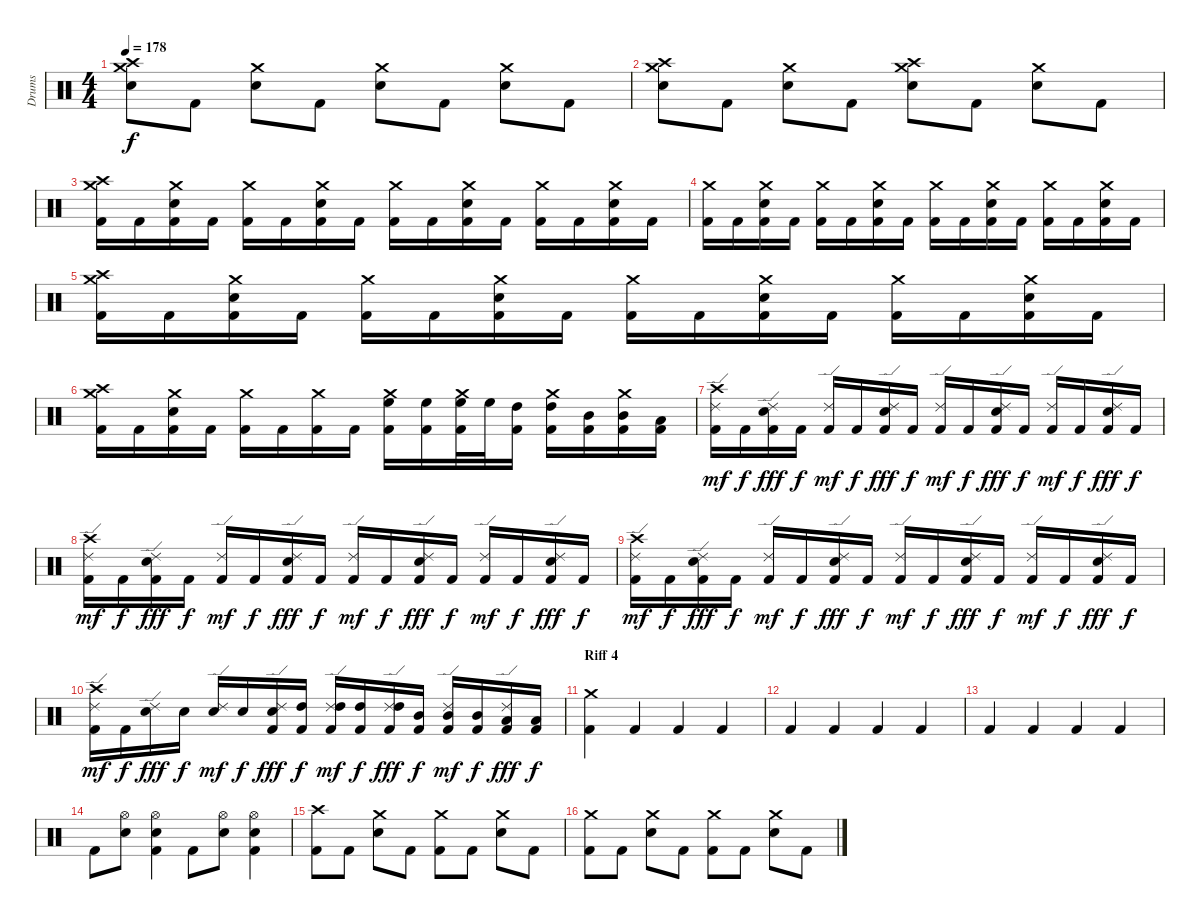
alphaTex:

\track ("Drums" "Drums") {instrument percussion}
\staff {score}
\articulation defaults
\ts (4 4)
\tempo 178
\clef neutral
\ks c
("Crash high (hit)" "Crash medium (hit)" "Electric Snare (hit)").8{dy f} "Kick (hit) 2".8 ("Crash medium (hit)" "Electric Snare (hit)").8 "Kick (hit) 2".8 ("Crash medium (hit)" "Electric Snare (hit)").8 "Kick (hit) 2".8 ("Crash medium (hit)" "Electric Snare (hit)").8 "Kick (hit) 2".8 |
("Crash high (hit)" "Crash medium (hit)" "Electric Snare (hit)").8 "Kick (hit) 2".8 ("Crash medium (hit)" "Electric Snare (hit)").8 "Kick (hit) 2".8 ("Crash high (hit)" "Crash medium (hit)" "Electric Snare (hit)").8 "Kick (hit) 2".8 ("Crash medium (hit)" "Electric Snare (hit)").8 "Kick (hit) 2".8 |
("Crash high (hit)" "Crash medium (hit)" "Kick (hit) 2").16 "Kick (hit) 2".16 ("Crash medium (hit)" "Electric Snare (hit)" "Kick (hit) 2").16 "Kick (hit) 2".16 ("Crash medium (hit)" "Kick (hit) 2").16 "Kick (hit) 2".16 ("Crash medium (hit)" "Electric Snare (hit)" "Kick (hit) 2").16 "Kick (hit) 2".16 ("Crash medium (hit)" "Kick (hit) 2").16 "Kick (hit) 2".16 ("Crash medium (hit)" "Electric Snare (hit)" "Kick (hit) 2").16 "Kick (hit) 2".16 ("Crash medium (hit)" "Kick (hit) 2").16 "Kick (hit) 2".16 ("Crash medium (hit)" "Electric Snare (hit)" "Kick (hit) 2").16 "Kick (hit) 2".16 |
("Crash medium (hit)" "Kick (hit) 2").16 "Kick (hit) 2".16 ("Crash medium (hit)" "Electric Snare (hit)" "Kick (hit) 2").16 "Kick (hit) 2".16 ("Crash medium (hit)" "Kick (hit) 2").16 "Kick (hit) 2".16 ("Crash medium (hit)" "Electric Snare (hit)" "Kick (hit) 2").16 "Kick (hit) 2".16 ("Crash medium (hit)" "Kick (hit) 2").16 "Kick (hit) 2".16 ("Crash medium (hit)" "Electric Snare (hit)" "Kick (hit) 2").16 "Kick (hit) 2".16 ("Crash medium (hit)" "Kick (hit) 2").16 "Kick (hit) 2".16 ("Crash medium (hit)" "Electric Snare (hit)" "Kick (hit) 2").16 "Kick (hit) 2".16 |
("Crash high (hit)" "Crash medium (hit)" "Kick (hit) 2").16 "Kick (hit) 2".16 ("Crash medium (hit)" "Electric Snare (hit)" "Kick (hit) 2").16 "Kick (hit) 2".16 ("Crash medium (hit)" "Kick (hit) 2").16 "Kick (hit) 2".16 ("Crash medium (hit)" "Electric Snare (hit)" "Kick (hit) 2").16 "Kick (hit) 2".16 ("Crash medium (hit)" "Kick (hit) 2").16 "Kick (hit) 2".16 ("Crash medium (hit)" "Electric Snare (hit)" "Kick (hit) 2").16 "Kick (hit) 2".16 ("Crash medium (hit)" "Kick (hit) 2").16 "Kick (hit) 2".16 ("Crash medium (hit)" "Electric Snare (hit)" "Kick (hit) 2").16 "Kick (hit) 2".16 |
("Crash high (hit)" "Crash medium (hit)" "Kick (hit) 2").16 "Kick (hit) 2".16 ("Crash medium (hit)" "Electric Snare (hit)" "Kick (hit) 2").16 "Kick (hit) 2".16 ("Crash medium (hit)" "Kick (hit) 2").16 "Kick (hit) 2".16 ("Crash medium (hit)" "Kick (hit) 2").16 "Kick (hit) 2".16 ("Crash medium (hit)" "High Floor Tom (hit)" "Kick (hit) 2").16 ("High Floor Tom (hit)" "Kick (hit) 2").16 ("Crash medium (hit)" "High Floor Tom (hit)" "Kick (hit) 2").32 "High Floor Tom (hit)".32 ("High Tom (hit)" "Kick (hit) 2").16 ("Crash medium (hit)" "High Tom (hit)" "Kick (hit) 2").16 ("Mid Tom (hit)" "Kick (hit) 2").16 ("Crash medium (hit)" "Mid Tom (hit)" "Kick (hit) 2").16 ("Low Tom (hit)" "Kick (hit) 2").16 |
("Crash high (hit)" "Ride (edge) 2" "Kick (hit) 2").16{dy mf} "Kick (hit) 2".16{dy f} ("Ride (edge) 2" "Electric Snare (hit)" "Kick (hit) 2").16{dy fff} "Kick (hit) 2".16{dy f} ("Ride (edge) 2" "Kick (hit) 2").16{dy mf} "Kick (hit) 2".16{dy f} ("Ride (edge) 2" "Electric Snare (hit)" "Kick (hit) 2").16{dy fff} "Kick (hit) 2".16{dy f} ("Ride (edge) 2" "Kick (hit) 2").16{dy mf} "Kick (hit) 2".16{dy f} ("Ride (edge) 2" "Electric Snare (hit)" "Kick (hit) 2").16{dy fff} "Kick (hit) 2".16{dy f} ("Ride (edge) 2" "Kick (hit) 2").16{dy mf} "Kick (hit) 2".16{dy f} ("Ride (edge) 2" "Electric Snare (hit)" "Kick (hit) 2").16{dy fff} "Kick (hit) 2".16{dy f} |
("Crash high (hit)" "Ride (edge) 2" "Kick (hit) 2").16{dy mf} "Kick (hit) 2".16{dy f} ("Ride (edge) 2" "Electric Snare (hit)" "Kick (hit) 2").16{dy fff} "Kick (hit) 2".16{dy f} ("Ride (edge) 2" "Kick (hit) 2").16{dy mf} "Kick (hit) 2".16{dy f} ("Ride (edge) 2" "Electric Snare (hit)" "Kick (hit) 2").16{dy fff} "Kick (hit) 2".16{dy f} ("Ride (edge) 2" "Kick (hit) 2").16{dy mf} "Kick (hit) 2".16{dy f} ("Ride (edge) 2" "Electric Snare (hit)" "Kick (hit) 2").16{dy fff} "Kick (hit) 2".16{dy f} ("Ride (edge) 2" "Kick (hit) 2").16{dy mf} "Kick (hit) 2".16{dy f} ("Ride (edge) 2" "Electric Snare (hit)" "Kick (hit) 2").16{dy fff} "Kick (hit) 2".16{dy f} |
("Crash high (hit)" "Ride (edge) 2" "Kick (hit) 2").16{dy mf} "Kick (hit) 2".16{dy f} ("Ride (edge) 2" "Electric Snare (hit)" "Kick (hit) 2").16{dy fff} "Kick (hit) 2".16{dy f} ("Ride (edge) 2" "Kick (hit) 2").16{dy mf} "Kick (hit) 2".16{dy f} ("Ride (edge) 2" "Electric Snare (hit)" "Kick (hit) 2").16{dy fff} "Kick (hit) 2".16{dy f} ("Ride (edge) 2" "Kick (hit) 2").16{dy mf} "Kick (hit) 2".16{dy f} ("Ride (edge) 2" "Electric Snare (hit)" "Kick (hit) 2").16{dy fff} "Kick (hit) 2".16{dy f} ("Ride (edge) 2" "Kick (hit) 2").16{dy mf} "Kick (hit) 2".16{dy f} ("Ride (edge) 2" "Electric Snare (hit)" "Kick (hit) 2").16{dy fff} "Kick (hit) 2".16{dy f} |
("Crash high (hit)" "Ride (edge) 2" "Kick (hit) 2").16{dy mf} "Kick (hit) 2".16{dy f} ("Ride (edge) 2" "Electric Snare (hit)").16{dy fff} "Electric Snare (hit)".16{dy f} ("Ride (edge) 2" "Electric Snare (hit)").16{dy mf} "Electric Snare (hit)".16{dy f} ("Ride (edge) 2" "Electric Snare (hit)" "Kick (hit) 2").16{dy fff} ("High Tom (hit)" "Kick (hit) 2").16{dy f} ("Ride (edge) 2" "High Tom (hit)" "Kick (hit) 2").16{dy mf} ("High Tom (hit)" "Kick (hit) 2").16{dy f} ("Ride (edge) 2" "High Tom (hit)" "Kick (hit) 2").16{dy fff} ("Mid Tom (hit)" "Kick (hit) 2").16{dy f} ("Ride (edge) 2" "Mid Tom (hit)" "Kick (hit) 2").16{dy mf} ("Mid Tom (hit)" "Kick (hit) 2").16{dy f} ("Ride (edge) 2" "Low Tom (hit)" "Kick (hit) 2").16{dy fff} ("Low Tom (hit)" "Kick (hit) 2").16{dy f} |
\section ("" "Riff 4")
("Crash medium (hit)" "Kick (hit) 2").4 "Kick (hit) 2".4 "Kick (hit) 2".4 "Kick (hit) 2".4 |
"Kick (hit) 2".4 "Kick (hit) 2".4 "Kick (hit) 2".4 "Kick (hit) 2".4 |
"Kick (hit) 2".4 "Kick (hit) 2".4 "Kick (hit) 2".4 "Kick (hit) 2".4 |
"Kick (hit) 2".8 ("Hi-Hat (open)" "Electric Snare (hit)").8 ("Hi-Hat (open)" "Electric Snare (hit)" "Kick (hit) 2").4 "Kick (hit) 2".8 ("Hi-Hat (open)" "Electric Snare (hit)").8 ("Hi-Hat (open)" "Electric Snare (hit)" "Kick (hit) 2").4 |
("Crash high (hit)" "Kick (hit) 2").8 "Kick (hit) 2".8 ("Crash medium (hit)" "Electric Snare (hit)").8 "Kick (hit) 2".8 ("Crash medium (hit)" "Kick (hit) 2").8 "Kick (hit) 2".8 ("Crash medium (hit)" "Electric Snare (hit)").8 "Kick (hit) 2".8 |
("Crash medium (hit)" "Kick (hit) 2").8 "Kick (hit) 2".8 ("Crash medium (hit)" "Electric Snare (hit)").8 "Kick (hit) 2".8 ("Crash medium (hit)" "Kick (hit) 2").8 "Kick (hit) 2".8 ("Crash medium (hit)" "Electric Snare (hit)").8 "Kick (hit) 2".8
